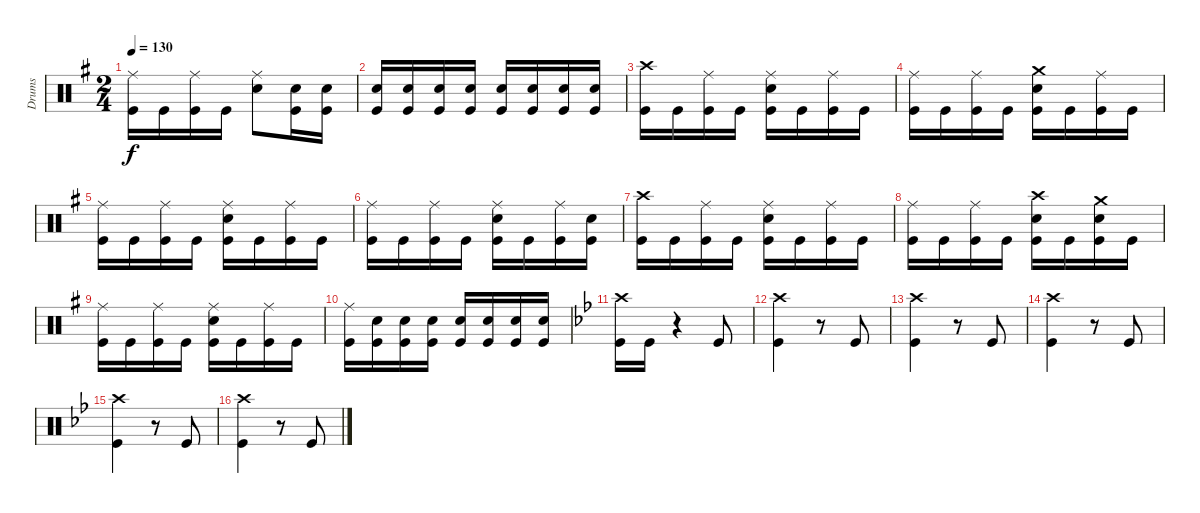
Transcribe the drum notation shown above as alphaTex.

\track ("Drums" "Drums") {instrument percussion}
\staff {score}
\articulation defaults
\ts (2 4)
\tempo 130
\clef neutral
\ks eminor
("Kick (hit)" "Ride (middle)").16{dy f} "Kick (hit)".16 ("Kick (hit)" "Ride (middle)").16 "Kick (hit)".16 ("Snare (hit) 2" "Ride (middle)").8 ("Snare (hit) 2" "Kick (hit)").16 ("Kick (hit)" "Snare (hit) 2").16 |
("Snare (hit) 2" "Kick (hit)").16 ("Kick (hit)" "Snare (hit) 2").16 ("Kick (hit)" "Snare (hit) 2").16 ("Snare (hit) 2" "Kick (hit)").16 ("Snare (hit) 2" "Kick (hit)").16 ("Snare (hit) 2" "Kick (hit)").16 ("Snare (hit) 2" "Kick (hit)").16 ("Snare (hit) 2" "Kick (hit)").16 |
("Kick (hit)" "Crash high (hit)").16 "Kick (hit)".16 ("Kick (hit)" "Ride (middle)").16 "Kick (hit)".16 ("Kick (hit)" "Snare (hit) 2" "Ride (middle)").16 "Kick (hit)".16 ("Kick (hit)" "Ride (middle)").16 "Kick (hit)".16 |
("Kick (hit)" "Ride (middle)").16 "Kick (hit)".16 ("Kick (hit)" "Ride (middle)").16 "Kick (hit)".16 ("Kick (hit)" "Snare (hit) 2" "Crash medium (hit)").16 "Kick (hit)".16 ("Kick (hit)" "Ride (middle)").16 "Kick (hit)".16 |
("Kick (hit)" "Ride (middle)").16 "Kick (hit)".16 ("Kick (hit)" "Ride (middle)").16 "Kick (hit)".16 ("Kick (hit)" "Snare (hit) 2" "Ride (middle)").16 "Kick (hit)".16 ("Kick (hit)" "Ride (middle)").16 "Kick (hit)".16 |
("Kick (hit)" "Ride (middle)").16 "Kick (hit)".16 ("Kick (hit)" "Ride (middle)").16 "Kick (hit)".16 ("Kick (hit)" "Snare (hit) 2" "Ride (middle)").16 "Kick (hit)".16 ("Kick (hit)" "Ride (middle)").16 ("Kick (hit)" "Snare (hit) 2").16 |
("Kick (hit)" "Crash high (hit)").16 "Kick (hit)".16 ("Kick (hit)" "Ride (middle)").16 "Kick (hit)".16 ("Kick (hit)" "Snare (hit) 2" "Ride (middle)").16 "Kick (hit)".16 ("Kick (hit)" "Ride (middle)").16 "Kick (hit)".16 |
("Kick (hit)" "Ride (middle)").16 "Kick (hit)".16 ("Kick (hit)" "Ride (middle)").16 "Kick (hit)".16 ("Kick (hit)" "Snare (hit) 2" "Crash high (hit)").16 "Kick (hit)".16 ("Kick (hit)" "Crash medium (hit)" "Snare (hit) 2").16 "Kick (hit)".16 |
("Kick (hit)" "Ride (middle)").16 "Kick (hit)".16 ("Kick (hit)" "Ride (middle)").16 "Kick (hit)".16 ("Kick (hit)" "Snare (hit) 2" "Ride (middle)").16 "Kick (hit)".16 ("Kick (hit)" "Ride (middle)").16 "Kick (hit)".16 |
("Kick (hit)" "Ride (middle)").16 ("Kick (hit)" "Snare (hit) 2").16 ("Kick (hit)" "Snare (hit) 2").16 ("Kick (hit)" "Snare (hit) 2").16 ("Kick (hit)" "Snare (hit) 2").16 ("Kick (hit)" "Snare (hit) 2").16 ("Kick (hit)" "Snare (hit) 2").16 ("Kick (hit)" "Snare (hit) 2").16 |
\ks gminor
("Kick (hit)" "Crash high (hit)").16 "Kick (hit)".16 r.4 "Kick (hit)".8 |
("Kick (hit)" "Crash high (hit)").4 r.8 "Kick (hit)".8 |
("Kick (hit)" "Crash high (hit)").4 r.8 "Kick (hit)".8 |
("Kick (hit)" "Crash high (hit)").4 r.8 "Kick (hit)".8 |
("Kick (hit)" "Crash high (hit)").4 r.8 "Kick (hit)".8 |
("Kick (hit)" "Crash high (hit)").4 r.8 "Kick (hit)".8
